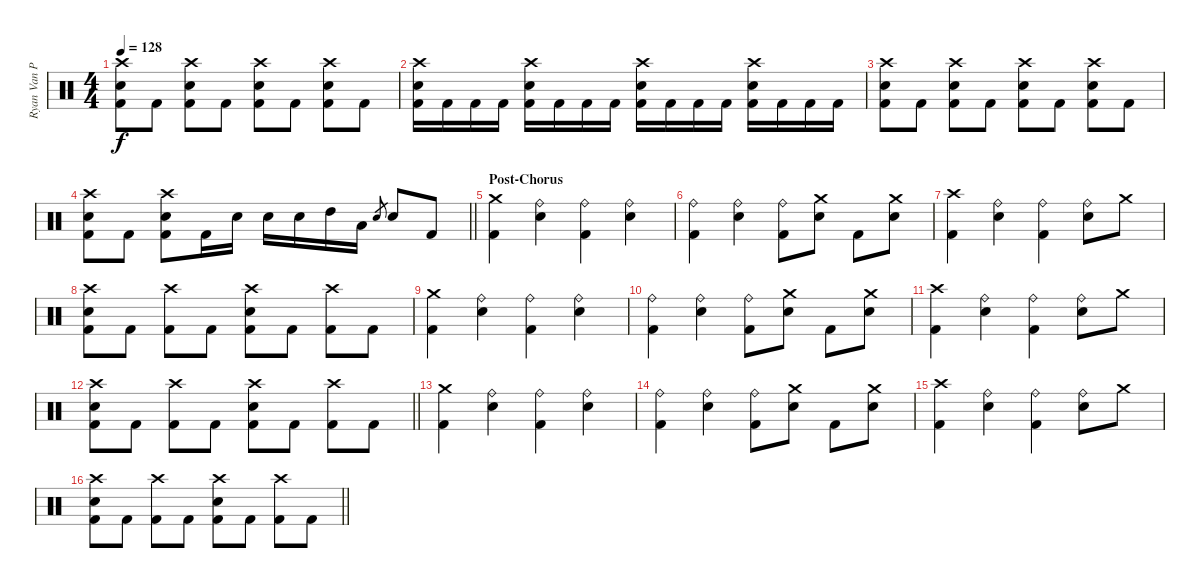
\track ("Ryan Van Poederooyen" "Ryan Van P") {instrument percussion}
\staff {score}
\articulation defaults
\ts (4 4)
\tempo 128
\clef neutral
\ks c
("Crash high (hit)" "Electric Snare (hit)" "Kick (hit) 2").8{dy f} "Kick (hit) 2".8 ("Crash high (hit)" "Electric Snare (hit)" "Kick (hit) 2").8 "Kick (hit) 2".8 ("Crash high (hit)" "Electric Snare (hit)" "Kick (hit) 2").8 "Kick (hit) 2".8 ("Crash high (hit)" "Electric Snare (hit)" "Kick (hit) 2").8 "Kick (hit) 2".8 |
("Crash high (hit)" "Electric Snare (hit)" "Kick (hit) 2").16 "Kick (hit) 2".16 "Kick (hit) 2".16 "Kick (hit) 2".16 ("Crash high (hit)" "Electric Snare (hit)" "Kick (hit) 2").16 "Kick (hit) 2".16 "Kick (hit) 2".16 "Kick (hit) 2".16 ("Crash high (hit)" "Electric Snare (hit)" "Kick (hit) 2").16 "Kick (hit) 2".16 "Kick (hit) 2".16 "Kick (hit) 2".16 ("Crash high (hit)" "Electric Snare (hit)" "Kick (hit) 2").16 "Kick (hit) 2".16 "Kick (hit) 2".16 "Kick (hit) 2".16 |
("Crash high (hit)" "Electric Snare (hit)" "Kick (hit) 2").8 "Kick (hit) 2".8 ("Crash high (hit)" "Electric Snare (hit)" "Kick (hit) 2").8 "Kick (hit) 2".8 ("Crash high (hit)" "Electric Snare (hit)" "Kick (hit) 2").8 "Kick (hit) 2".8 ("Crash high (hit)" "Electric Snare (hit)" "Kick (hit) 2").8 "Kick (hit) 2".8 |
\barLineRight lightlight
("Crash high (hit)" "Electric Snare (hit)" "Kick (hit) 2").8 "Kick (hit) 2".8 ("Crash high (hit)" "Electric Snare (hit)" "Kick (hit) 2").8 "Kick (hit) 2".16 "Electric Snare (hit)".16 "Electric Snare (hit)".16 "Electric Snare (hit)".16 "High Tom (hit)".16 "Low Tom (hit)".16 "Electric Snare (hit)".8{gr} "Electric Snare (hit)".8 "Kick (hit) 2".8 |
\section ("" "Post-Chorus")
("Crash medium (hit)" "Kick (hit) 2").4 ("Ride (bell)" "Electric Snare (hit)").4 ("Ride (bell)" "Kick (hit) 2").4 ("Ride (bell)" "Electric Snare (hit)").4 |
("Ride (bell)" "Kick (hit) 2").4 ("Ride (bell)" "Electric Snare (hit)").4 ("Ride (bell)" "Kick (hit) 2").8 ("Crash medium (hit)" "Electric Snare (hit)").8 "Kick (hit) 2".8 ("Crash medium (hit)" "Electric Snare (hit)").8 |
("Crash high (hit)" "Kick (hit) 2").4 ("Ride (bell)" "Electric Snare (hit)").4 ("Ride (bell)" "Kick (hit) 2").4 ("Ride (bell)" "Electric Snare (hit)").8 "Crash medium (hit)".8 |
("Crash high (hit)" "Electric Snare (hit)" "Kick (hit) 2").8 "Kick (hit) 2".8 ("Crash high (hit)" "Kick (hit) 2").8 "Kick (hit) 2".8 ("Crash high (hit)" "Electric Snare (hit)" "Kick (hit) 2").8 "Kick (hit) 2".8 ("Crash high (hit)" "Kick (hit) 2").8 "Kick (hit) 2".8 |
("Crash medium (hit)" "Kick (hit) 2").4 ("Ride (bell)" "Electric Snare (hit)").4 ("Ride (bell)" "Kick (hit) 2").4 ("Ride (bell)" "Electric Snare (hit)").4 |
("Ride (bell)" "Kick (hit) 2").4 ("Ride (bell)" "Electric Snare (hit)").4 ("Ride (bell)" "Kick (hit) 2").8 ("Crash medium (hit)" "Electric Snare (hit)").8 "Kick (hit) 2".8 ("Crash medium (hit)" "Electric Snare (hit)").8 |
("Crash high (hit)" "Kick (hit) 2").4 ("Ride (bell)" "Electric Snare (hit)").4 ("Ride (bell)" "Kick (hit) 2").4 ("Ride (bell)" "Electric Snare (hit)").8 "Crash medium (hit)".8 |
\barLineRight lightlight
("Crash high (hit)" "Electric Snare (hit)" "Kick (hit) 2").8 "Kick (hit) 2".8 ("Crash high (hit)" "Kick (hit) 2").8 "Kick (hit) 2".8 ("Crash high (hit)" "Electric Snare (hit)" "Kick (hit) 2").8 "Kick (hit) 2".8 ("Crash high (hit)" "Kick (hit) 2").8 "Kick (hit) 2".8 |
("Crash medium (hit)" "Kick (hit) 2").4 ("Ride (bell)" "Electric Snare (hit)").4 ("Ride (bell)" "Kick (hit) 2").4 ("Ride (bell)" "Electric Snare (hit)").4 |
("Ride (bell)" "Kick (hit) 2").4 ("Ride (bell)" "Electric Snare (hit)").4 ("Ride (bell)" "Kick (hit) 2").8 ("Crash medium (hit)" "Electric Snare (hit)").8 "Kick (hit) 2".8 ("Crash medium (hit)" "Electric Snare (hit)").8 |
("Crash high (hit)" "Kick (hit) 2").4 ("Ride (bell)" "Electric Snare (hit)").4 ("Ride (bell)" "Kick (hit) 2").4 ("Ride (bell)" "Electric Snare (hit)").8 "Crash medium (hit)".8 |
\barLineRight lightlight
("Crash high (hit)" "Electric Snare (hit)" "Kick (hit) 2").8 "Kick (hit) 2".8 ("Crash high (hit)" "Kick (hit) 2").8 "Kick (hit) 2".8 ("Crash high (hit)" "Electric Snare (hit)" "Kick (hit) 2").8 "Kick (hit) 2".8 ("Crash high (hit)" "Kick (hit) 2").8 "Kick (hit) 2".8
